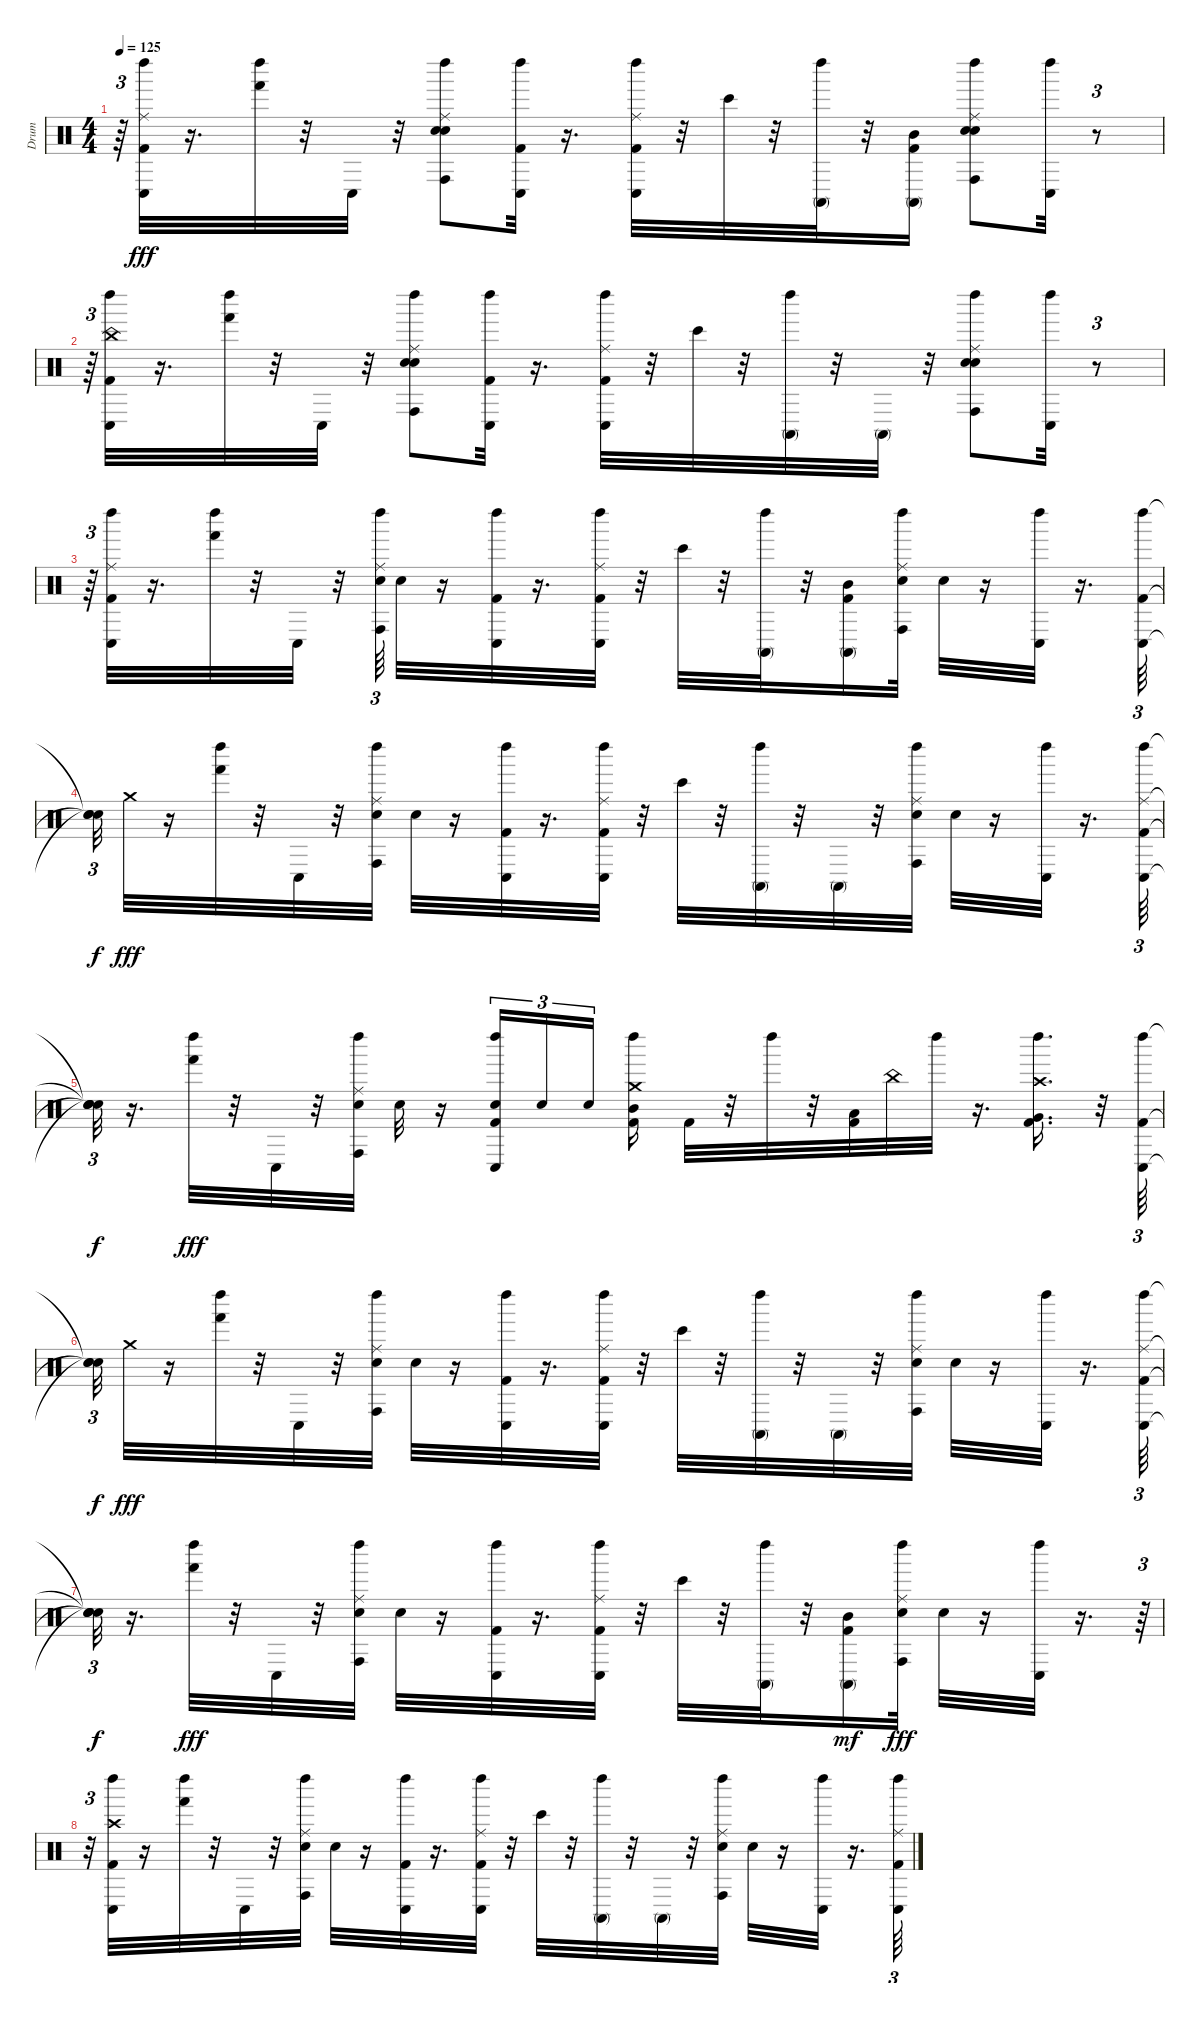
\track ("Drum" "Drum") {instrument percussion}
\staff {score}
\articulation defaults
\ts (4 4)
\tempo 125
\clef neutral
\ks c
r.64{tu (3 2) dy fff} ("Kick (hit) 2" "Conga low (hit)" "Left Maraca (hit)" "Ride (middle)").32 r.16{d} ("Hand (hit)" "Left Maraca (hit)").32 r.32 "Conga low (hit)".32 r.32 ("Conga high (hit)" "Left Maraca (hit)" "Electric Snare (hit)" "Ride (middle)" "Electric Snare (hit)").8 ("Kick (hit) 2" "Conga low (hit)" "Left Maraca (hit)").32 r.16{d} ("Kick (hit) 2" "Conga low (hit)" "Left Maraca (hit)" "Ride (middle)").32 r.32 "Bongo High (hit)".32 r.32 ("Conga high (mute)" "Left Maraca (hit)").32 r.32 ("Kick (hit) 2" "Conga high (mute)" "Mid Tom (hit)").16 ("Conga high (hit)" "Left Maraca (hit)" "Electric Snare (hit)" "Ride (middle)" "Electric Snare (hit)").8 ("Conga low (hit)" "Left Maraca (hit)").32 r.8{tu (3 2)} |
r.64{tu (3 2)} ("Kick (hit) 2" "Conga low (hit)" "Left Maraca (hit)" "China (hit)").32 r.16{d} ("Hand (hit)" "Left Maraca (hit)").32 r.32 "Conga low (hit)".32 r.32 ("Conga high (hit)" "Left Maraca (hit)" "Electric Snare (hit)" "Ride (middle)" "Electric Snare (hit)").8 ("Kick (hit) 2" "Conga low (hit)" "Left Maraca (hit)").32 r.16{d} ("Kick (hit) 2" "Conga low (hit)" "Left Maraca (hit)" "Ride (middle)").32 r.32 "Bongo High (hit)".32 r.32 ("Conga high (mute)" "Left Maraca (hit)").32 r.32 "Conga high (mute)".32 r.32 ("Conga high (hit)" "Left Maraca (hit)" "Electric Snare (hit)" "Ride (middle)" "Electric Snare (hit)").8 ("Conga low (hit)" "Left Maraca (hit)").32 r.8{tu (3 2)} |
r.64{tu (3 2)} ("Kick (hit) 2" "Conga low (hit)" "Left Maraca (hit)" "Ride (middle)").32 r.16{d} ("Hand (hit)" "Left Maraca (hit)").32 r.32 "Conga low (hit)".32 r.32 ("Conga high (hit)" "Left Maraca (hit)" "Electric Snare (hit)" "Ride (middle)").64{tu (3 2)} "Electric Snare (hit)".32 r.16 ("Kick (hit) 2" "Conga low (hit)" "Left Maraca (hit)").32 r.16{d} ("Kick (hit) 2" "Conga low (hit)" "Left Maraca (hit)" "Ride (middle)").32 r.32 "Bongo High (hit)".32 r.32 ("Conga high (mute)" "Left Maraca (hit)").32 r.32 ("Kick (hit) 2" "Conga high (mute)" "Mid Tom (hit)").16 ("Conga high (hit)" "Left Maraca (hit)" "Electric Snare (hit)" "Ride (middle)").32 "Electric Snare (hit)".32 r.16 ("Conga low (hit)" "Left Maraca (hit)").32 r.16{d} ("Kick (hit) 2" "Conga low (hit)" "Left Maraca (hit)").64{tu (3 2)} |
("Snare (hit)"{t} "Snare (hit)"{t} "Snare (hit)"{t}).32{tu (3 2) dy f} "Crash medium (hit)".32{dy fff} r.16 ("Hand (hit)" "Left Maraca (hit)").32 r.32 "Conga low (hit)".32 r.32 ("Conga high (hit)" "Left Maraca (hit)" "Electric Snare (hit)" "Ride (middle)").32 "Electric Snare (hit)".32 r.16 ("Kick (hit) 2" "Conga low (hit)" "Left Maraca (hit)").32 r.16{d} ("Kick (hit) 2" "Conga low (hit)" "Left Maraca (hit)" "Ride (middle)").32 r.32 "Bongo High (hit)".32 r.32 ("Conga high (mute)" "Left Maraca (hit)").32 r.32 "Conga high (mute)".32 r.32 ("Conga high (hit)" "Left Maraca (hit)" "Electric Snare (hit)" "Ride (middle)").32 "Electric Snare (hit)".32 r.16 ("Conga low (hit)" "Left Maraca (hit)").32 r.16{d} ("Kick (hit) 2" "Conga low (hit)" "Left Maraca (hit)" "Ride (middle)").64{tu (3 2)} |
("Snare (hit)"{t} "Snare (hit)"{t} "Snare (hit)"{t} "Snare (hit)"{t}).32{tu (3 2) dy f} r.16{d} ("Hand (hit)" "Left Maraca (hit)").32{dy fff} r.32 "Conga low (hit)".32 r.32 ("Conga high (hit)" "Left Maraca (hit)" "Electric Snare (hit)" "Ride (middle)").32 "Electric Snare (hit)".32 r.16 ("Kick (hit) 2" "Conga low (hit)" "Left Maraca (hit)" "Electric Snare (hit)").16{tu (3 2)} "Electric Snare (hit)".16{tu (3 2)} "Electric Snare (hit)".16{tu (3 2) beam splitsecondary} ("Kick (hit) 2" "Left Maraca (hit)" "Mid Tom (hit)" "Crash medium (hit)").16 "Kick (hit) 2".32 r.32 "Left Maraca (hit)".32 r.32 ("Kick (hit) 2" "Low Tom (hit)").32 "China (hit)".32 "Left Maraca (hit)".32 r.16{d} ("Kick (hit) 2" "Left Maraca (hit)" "Very Low Tom (hit)" "Crash high (hit)").16{d} r.32 ("Kick (hit) 2" "Conga low (hit)" "Left Maraca (hit)").64{tu (3 2)} |
("Snare (hit)"{t} "Snare (hit)"{t} "Snare (hit)"{t}).32{tu (3 2) dy f} "Crash medium (hit)".32{dy fff} r.16 ("Hand (hit)" "Left Maraca (hit)").32 r.32 "Conga low (hit)".32 r.32 ("Conga high (hit)" "Left Maraca (hit)" "Electric Snare (hit)" "Ride (middle)").32 "Electric Snare (hit)".32 r.16 ("Kick (hit) 2" "Conga low (hit)" "Left Maraca (hit)").32 r.16{d} ("Kick (hit) 2" "Conga low (hit)" "Left Maraca (hit)" "Ride (middle)").32 r.32 "Bongo High (hit)".32 r.32 ("Conga high (mute)" "Left Maraca (hit)").32 r.32 "Conga high (mute)".32 r.32 ("Conga high (hit)" "Left Maraca (hit)" "Electric Snare (hit)" "Ride (middle)").32 "Electric Snare (hit)".32 r.16 ("Conga low (hit)" "Left Maraca (hit)").32 r.16{d} ("Kick (hit) 2" "Conga low (hit)" "Left Maraca (hit)" "Ride (middle)").64{tu (3 2)} |
("Snare (hit)"{t} "Snare (hit)"{t} "Snare (hit)"{t} "Snare (hit)"{t}).32{tu (3 2) dy f} r.16{d} ("Hand (hit)" "Left Maraca (hit)").32{dy fff} r.32 "Conga low (hit)".32 r.32 ("Conga high (hit)" "Left Maraca (hit)" "Electric Snare (hit)" "Ride (middle)").32 "Electric Snare (hit)".32 r.16 ("Kick (hit) 2" "Conga low (hit)" "Left Maraca (hit)").32 r.16{d} ("Kick (hit) 2" "Conga low (hit)" "Left Maraca (hit)" "Ride (middle)").32 r.32 "Bongo High (hit)".32 r.32 ("Conga high (mute)" "Left Maraca (hit)").32 r.32 ("Kick (hit) 2" "Conga high (mute)" "Mid Tom (hit)").16{dy mf} ("Conga high (hit)" "Left Maraca (hit)" "Electric Snare (hit)" "Ride (middle)").32{dy fff} "Electric Snare (hit)".32 r.16 ("Conga low (hit)" "Left Maraca (hit)").32 r.16{d} r.64{tu (3 2)} |
r.32{tu (3 2)} ("Kick (hit) 2" "Conga low (hit)" "Left Maraca (hit)" "Crash high (hit)").32 r.16 ("Hand (hit)" "Left Maraca (hit)").32 r.32 "Conga low (hit)".32 r.32 ("Conga high (hit)" "Left Maraca (hit)" "Electric Snare (hit)" "Ride (middle)").32 "Electric Snare (hit)".32 r.16 ("Kick (hit) 2" "Conga low (hit)" "Left Maraca (hit)").32 r.16{d} ("Kick (hit) 2" "Conga low (hit)" "Left Maraca (hit)" "Ride (middle)").32 r.32 "Bongo High (hit)".32 r.32 ("Conga high (mute)" "Left Maraca (hit)").32 r.32 "Conga high (mute)".32 r.32 ("Conga high (hit)" "Left Maraca (hit)" "Electric Snare (hit)" "Ride (middle)").32 "Electric Snare (hit)".32 r.16 ("Conga low (hit)" "Left Maraca (hit)").32 r.16{d} ("Kick (hit) 2" "Conga low (hit)" "Left Maraca (hit)" "Ride (middle)").64{tu (3 2)}
